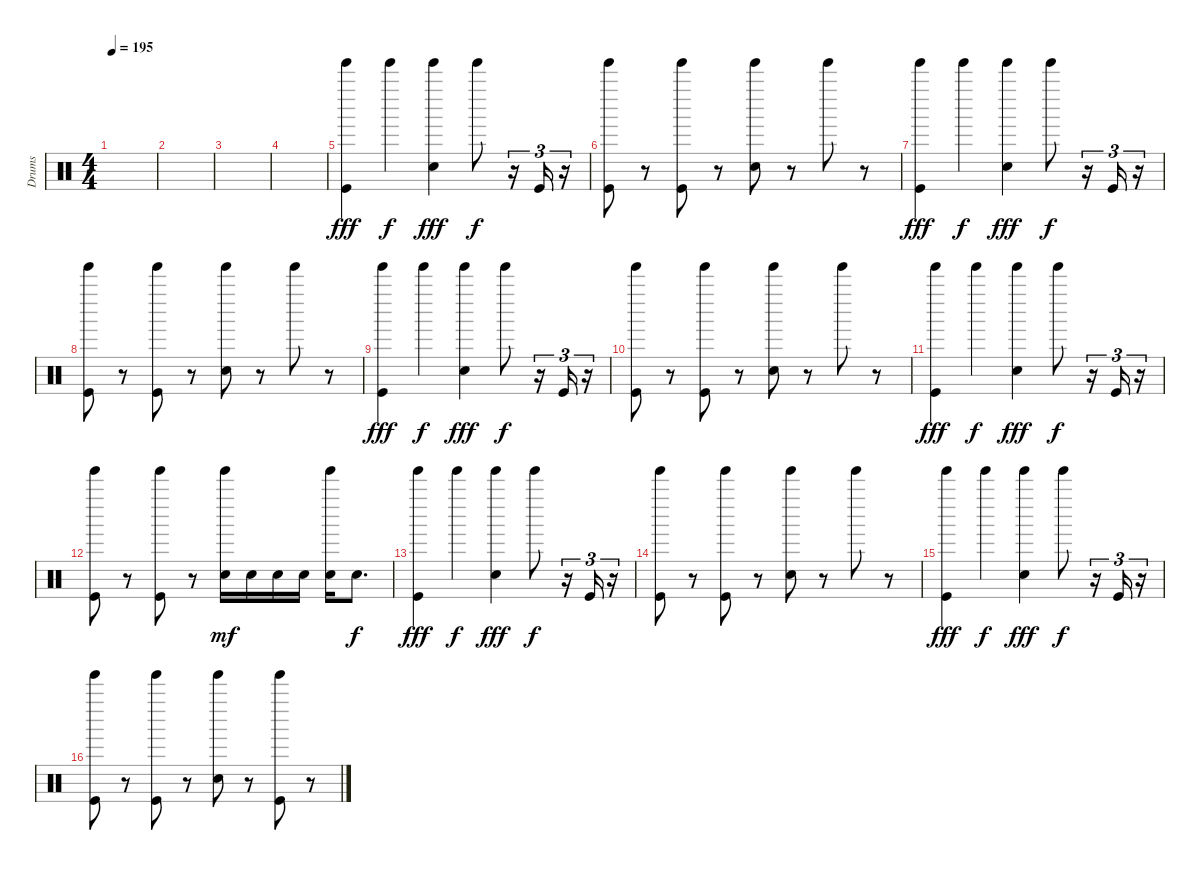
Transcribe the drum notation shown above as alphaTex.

\track ("Drums" "Drums") {instrument percussion}
\staff {score}
\articulation defaults
\ts (4 4)
\tempo 195
\clef neutral
\ks c
|
|
|
|
("Tinkle Bell (hit)" "Kick (hit)").4{dy fff} "Tinkle Bell (hit)".4{dy f} ("Tinkle Bell (hit)" "Snare (hit) 2").4{dy fff} "Tinkle Bell (hit)".8{dy f} r.16{tu (3 2)} "Kick (hit)".16{tu (3 2)} r.16{tu (3 2)} |
("Tinkle Bell (hit)" "Kick (hit)").8 r.8 ("Tinkle Bell (hit)" "Kick (hit)").8 r.8 ("Tinkle Bell (hit)" "Snare (hit) 2").8 r.8 "Tinkle Bell (hit)".8 r.8 |
("Tinkle Bell (hit)" "Kick (hit)").4{dy fff} "Tinkle Bell (hit)".4{dy f} ("Tinkle Bell (hit)" "Snare (hit) 2").4{dy fff} "Tinkle Bell (hit)".8{dy f} r.16{tu (3 2)} "Kick (hit)".16{tu (3 2)} r.16{tu (3 2)} |
("Tinkle Bell (hit)" "Kick (hit)").8 r.8 ("Tinkle Bell (hit)" "Kick (hit)").8 r.8 ("Tinkle Bell (hit)" "Snare (hit) 2").8 r.8 "Tinkle Bell (hit)".8 r.8 |
("Tinkle Bell (hit)" "Kick (hit)").4{dy fff} "Tinkle Bell (hit)".4{dy f} ("Tinkle Bell (hit)" "Snare (hit) 2").4{dy fff} "Tinkle Bell (hit)".8{dy f} r.16{tu (3 2)} "Kick (hit)".16{tu (3 2)} r.16{tu (3 2)} |
("Tinkle Bell (hit)" "Kick (hit)").8 r.8 ("Tinkle Bell (hit)" "Kick (hit)").8 r.8 ("Tinkle Bell (hit)" "Snare (hit) 2").8 r.8 "Tinkle Bell (hit)".8 r.8 |
("Tinkle Bell (hit)" "Kick (hit)").4{dy fff} "Tinkle Bell (hit)".4{dy f} ("Tinkle Bell (hit)" "Snare (hit) 2").4{dy fff} "Tinkle Bell (hit)".8{dy f} r.16{tu (3 2)} "Kick (hit)".16{tu (3 2)} r.16{tu (3 2)} |
("Tinkle Bell (hit)" "Kick (hit)").8 r.8 ("Tinkle Bell (hit)" "Kick (hit)").8 r.8 ("Tinkle Bell (hit)" "Snare (hit) 2").16{dy mf} "Snare (hit) 2".16 "Snare (hit) 2".16 "Snare (hit) 2".16 ("Tinkle Bell (hit)" "Snare (hit) 2").16 "Snare (hit)".8{d dy f} |
("Tinkle Bell (hit)" "Kick (hit)").4{dy fff} "Tinkle Bell (hit)".4{dy f} ("Tinkle Bell (hit)" "Snare (hit) 2").4{dy fff} "Tinkle Bell (hit)".8{dy f} r.16{tu (3 2)} "Kick (hit)".16{tu (3 2)} r.16{tu (3 2)} |
("Tinkle Bell (hit)" "Kick (hit)").8 r.8 ("Tinkle Bell (hit)" "Kick (hit)").8 r.8 ("Tinkle Bell (hit)" "Snare (hit) 2").8 r.8 "Tinkle Bell (hit)".8 r.8 |
("Tinkle Bell (hit)" "Kick (hit)").4{dy fff} "Tinkle Bell (hit)".4{dy f} ("Tinkle Bell (hit)" "Snare (hit) 2").4{dy fff} "Tinkle Bell (hit)".8{dy f} r.16{tu (3 2)} "Kick (hit)".16{tu (3 2)} r.16{tu (3 2)} |
("Tinkle Bell (hit)" "Kick (hit)").8 r.8 ("Tinkle Bell (hit)" "Kick (hit)").8 r.8 ("Tinkle Bell (hit)" "Snare (hit) 2").8 r.8 ("Tinkle Bell (hit)" "Kick (hit)").8 r.8
